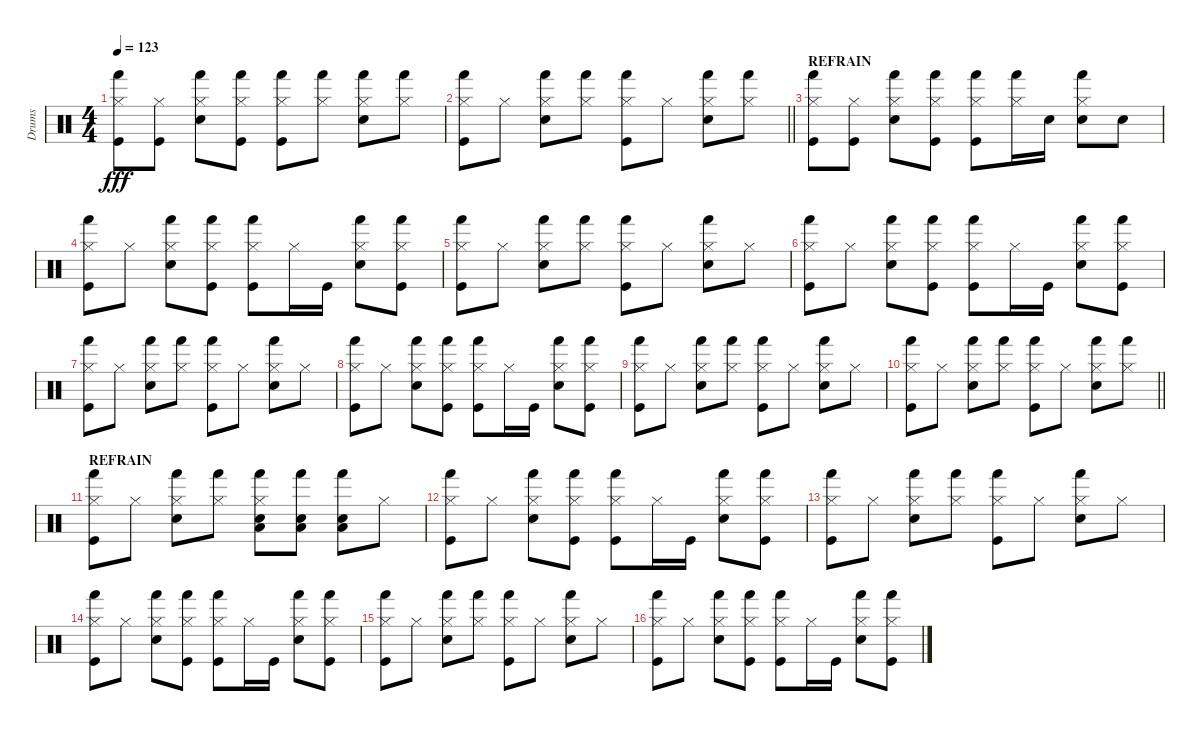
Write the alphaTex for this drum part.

\track ("Drums" "Drums") {instrument percussion}
\staff {score}
\articulation defaults
\ts (4 4)
\tempo 123
\clef neutral
\ks c
("Hand (hit)" "Kick (hit)" "Hi-Hat (closed)").8{dy fff} ("Hi-Hat (closed)" "Kick (hit)").8 ("Electric Snare (hit)" "Hi-Hat (closed)" "Hand (hit)").8 ("Kick (hit)" "Hand (hit)" "Hi-Hat (closed)").8 ("Kick (hit)" "Hand (hit)" "Hi-Hat (closed)").8 ("Hand (hit)" "Hi-Hat (closed)").8 ("Electric Snare (hit)" "Hand (hit)" "Hi-Hat (closed)").8 ("Hi-Hat (closed)" "Hand (hit)").8 |
\barLineRight lightlight
("Hi-Hat (closed)" "Hand (hit)" "Kick (hit)").8 "Hi-Hat (closed)".8 ("Electric Snare (hit)" "Hi-Hat (closed)" "Hand (hit)").8 ("Hi-Hat (closed)" "Hand (hit)").8 ("Hi-Hat (closed)" "Kick (hit)" "Hand (hit)").8 "Hi-Hat (closed)".8 ("Hi-Hat (closed)" "Electric Snare (hit)" "Hand (hit)").8 ("Hi-Hat (closed)" "Hand (hit)").8 |
\section ("" "REFRAIN")
("Hi-Hat (closed)" "Hand (hit)" "Kick (hit)").8 ("Kick (hit)" "Hi-Hat (closed)").8 ("Hand (hit)" "Hi-Hat (closed)" "Electric Snare (hit)").8 ("Kick (hit)" "Hand (hit)" "Hi-Hat (closed)").8 ("Hand (hit)" "Hi-Hat (closed)" "Kick (hit)").8 ("Hi-Hat (closed)" "Hand (hit)").16 "Electric Snare (hit)".16 ("Hand (hit)" "Hi-Hat (closed)" "Electric Snare (hit)").8 "Electric Snare (hit)".8 |
("Hand (hit)" "Hi-Hat (closed)" "Kick (hit)").8 "Hi-Hat (closed)".8 ("Hi-Hat (closed)" "Hand (hit)" "Electric Snare (hit)").8 ("Hi-Hat (closed)" "Hand (hit)" "Kick (hit)").8 ("Hi-Hat (closed)" "Hand (hit)" "Kick (hit)").8 "Hi-Hat (closed)".16 "Kick (hit)".16 ("Hi-Hat (closed)" "Electric Snare (hit)" "Hand (hit)").8 ("Hi-Hat (closed)" "Hand (hit)" "Kick (hit)").8 |
("Hi-Hat (closed)" "Kick (hit)" "Hand (hit)").8 "Hi-Hat (closed)".8 ("Electric Snare (hit)" "Hand (hit)" "Hi-Hat (closed)").8 ("Hi-Hat (closed)" "Hand (hit)").8 ("Hi-Hat (closed)" "Kick (hit)" "Hand (hit)").8 "Hi-Hat (closed)".8 ("Electric Snare (hit)" "Hand (hit)" "Hi-Hat (closed)").8 "Hi-Hat (closed)".8 |
("Hand (hit)" "Hi-Hat (closed)" "Kick (hit)").8 "Hi-Hat (closed)".8 ("Hi-Hat (closed)" "Hand (hit)" "Electric Snare (hit)").8 ("Hi-Hat (closed)" "Hand (hit)" "Kick (hit)").8 ("Hi-Hat (closed)" "Hand (hit)" "Kick (hit)").8 "Hi-Hat (closed)".16 "Kick (hit)".16 ("Hi-Hat (closed)" "Electric Snare (hit)" "Hand (hit)").8 ("Hi-Hat (closed)" "Hand (hit)" "Kick (hit)").8 |
("Hi-Hat (closed)" "Kick (hit)" "Hand (hit)").8 "Hi-Hat (closed)".8 ("Electric Snare (hit)" "Hand (hit)" "Hi-Hat (closed)").8 ("Hi-Hat (closed)" "Hand (hit)").8 ("Hi-Hat (closed)" "Kick (hit)" "Hand (hit)").8 "Hi-Hat (closed)".8 ("Electric Snare (hit)" "Hand (hit)" "Hi-Hat (closed)").8 "Hi-Hat (closed)".8 |
("Hand (hit)" "Hi-Hat (closed)" "Kick (hit)").8 "Hi-Hat (closed)".8 ("Hi-Hat (closed)" "Hand (hit)" "Electric Snare (hit)").8 ("Hi-Hat (closed)" "Hand (hit)" "Kick (hit)").8 ("Hi-Hat (closed)" "Hand (hit)" "Kick (hit)").8 "Hi-Hat (closed)".16 "Kick (hit)".16 ("Hi-Hat (closed)" "Electric Snare (hit)" "Hand (hit)").8 ("Hi-Hat (closed)" "Hand (hit)" "Kick (hit)").8 |
("Hi-Hat (closed)" "Kick (hit)" "Hand (hit)").8 "Hi-Hat (closed)".8 ("Electric Snare (hit)" "Hand (hit)" "Hi-Hat (closed)").8 ("Hi-Hat (closed)" "Hand (hit)").8 ("Hi-Hat (closed)" "Kick (hit)" "Hand (hit)").8 "Hi-Hat (closed)".8 ("Electric Snare (hit)" "Hand (hit)" "Hi-Hat (closed)").8 "Hi-Hat (closed)".8 |
\barLineRight lightlight
("Hi-Hat (closed)" "Hand (hit)" "Kick (hit)").8 "Hi-Hat (closed)".8 ("Electric Snare (hit)" "Hi-Hat (closed)" "Hand (hit)").8 ("Hi-Hat (closed)" "Hand (hit)").8 ("Hi-Hat (closed)" "Kick (hit)" "Hand (hit)").8 "Hi-Hat (closed)".8 ("Hi-Hat (closed)" "Electric Snare (hit)" "Hand (hit)").8 ("Hi-Hat (closed)" "Hand (hit)").8 |
\section ("" "REFRAIN")
("Hi-Hat (closed)" "Kick (hit)" "Hand (hit)").8 "Hi-Hat (closed)".8 ("Electric Snare (hit)" "Hi-Hat (closed)" "Hand (hit)").8 ("Hi-Hat (closed)" "Hand (hit)").8 ("Low Tom (hit)" "Hi-Hat (closed)" "Electric Snare (hit)" "Hand (hit)").8 ("Electric Snare (hit)" "Low Tom (hit)" "Hand (hit)").8 ("Electric Snare (hit)" "Hand (hit)" "Low Tom (hit)").8 "Hi-Hat (closed)".8 |
("Hand (hit)" "Hi-Hat (closed)" "Kick (hit)").8 "Hi-Hat (closed)".8 ("Hi-Hat (closed)" "Hand (hit)" "Electric Snare (hit)").8 ("Hi-Hat (closed)" "Hand (hit)" "Kick (hit)").8 ("Hi-Hat (closed)" "Hand (hit)" "Kick (hit)").8 "Hi-Hat (closed)".16 "Kick (hit)".16 ("Hi-Hat (closed)" "Electric Snare (hit)" "Hand (hit)").8 ("Hi-Hat (closed)" "Hand (hit)" "Kick (hit)").8 |
("Hi-Hat (closed)" "Kick (hit)" "Hand (hit)").8 "Hi-Hat (closed)".8 ("Electric Snare (hit)" "Hand (hit)" "Hi-Hat (closed)").8 ("Hi-Hat (closed)" "Hand (hit)").8 ("Hi-Hat (closed)" "Kick (hit)" "Hand (hit)").8 "Hi-Hat (closed)".8 ("Electric Snare (hit)" "Hand (hit)" "Hi-Hat (closed)").8 "Hi-Hat (closed)".8 |
("Hand (hit)" "Hi-Hat (closed)" "Kick (hit)").8 "Hi-Hat (closed)".8 ("Hi-Hat (closed)" "Hand (hit)" "Electric Snare (hit)").8 ("Hi-Hat (closed)" "Hand (hit)" "Kick (hit)").8 ("Hi-Hat (closed)" "Hand (hit)" "Kick (hit)").8 "Hi-Hat (closed)".16 "Kick (hit)".16 ("Hi-Hat (closed)" "Electric Snare (hit)" "Hand (hit)").8 ("Hi-Hat (closed)" "Hand (hit)" "Kick (hit)").8 |
("Hi-Hat (closed)" "Kick (hit)" "Hand (hit)").8 "Hi-Hat (closed)".8 ("Electric Snare (hit)" "Hand (hit)" "Hi-Hat (closed)").8 ("Hi-Hat (closed)" "Hand (hit)").8 ("Hi-Hat (closed)" "Kick (hit)" "Hand (hit)").8 "Hi-Hat (closed)".8 ("Electric Snare (hit)" "Hand (hit)" "Hi-Hat (closed)").8 "Hi-Hat (closed)".8 |
("Hand (hit)" "Hi-Hat (closed)" "Kick (hit)").8 "Hi-Hat (closed)".8 ("Hi-Hat (closed)" "Hand (hit)" "Electric Snare (hit)").8 ("Hi-Hat (closed)" "Hand (hit)" "Kick (hit)").8 ("Hi-Hat (closed)" "Hand (hit)" "Kick (hit)").8 "Hi-Hat (closed)".16 "Kick (hit)".16 ("Hi-Hat (closed)" "Electric Snare (hit)" "Hand (hit)").8 ("Hi-Hat (closed)" "Hand (hit)" "Kick (hit)").8
